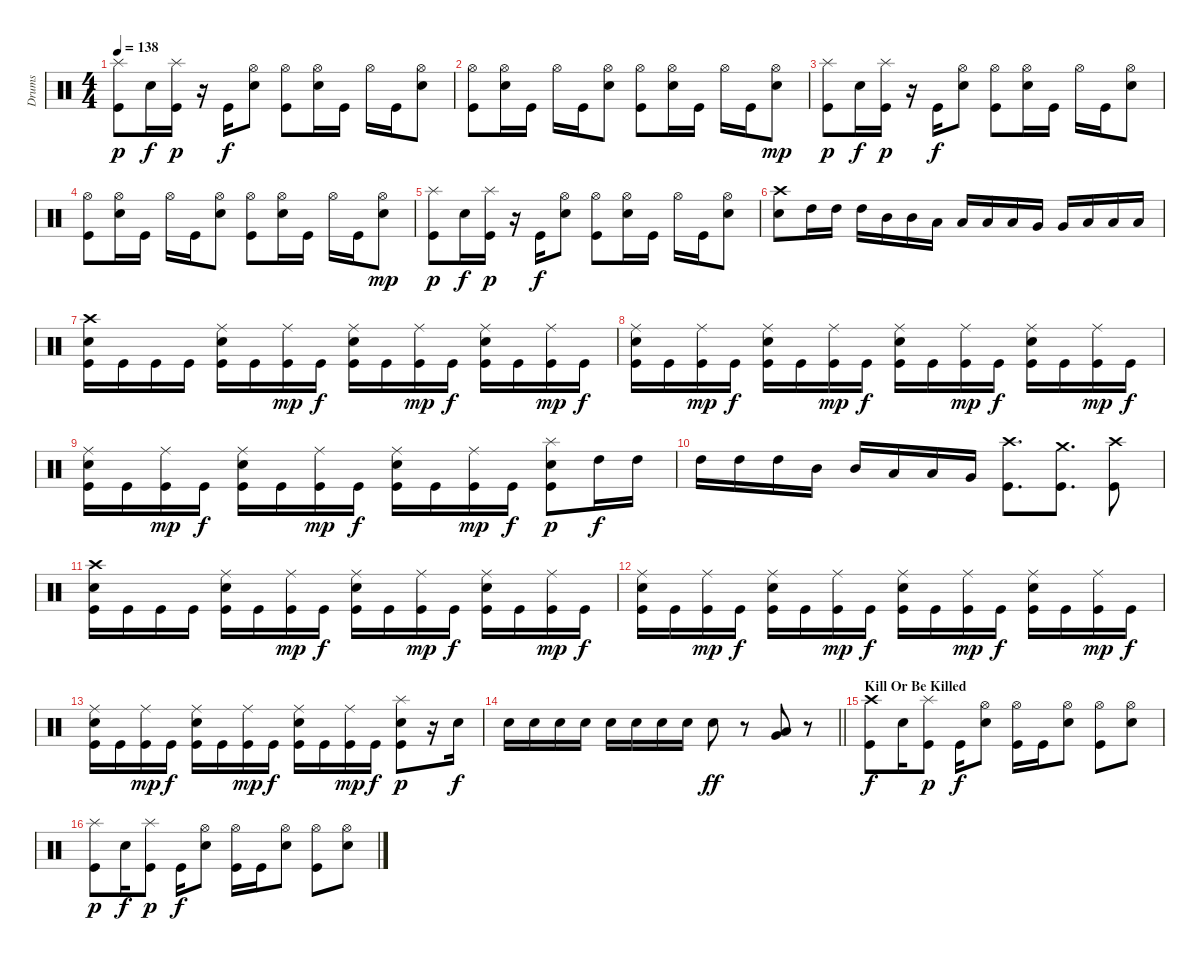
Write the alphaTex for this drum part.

\track ("Drums" "Drums") {instrument percussion}
\staff {score}
\articulation defaults
\ts (4 4)
\tempo 138
\clef neutral
\ks c
("Splash (hit)" "Kick (hit)").8{dy p} "Electric Snare (hit)".16{dy f} ("Splash (hit)" "Kick (hit)").16{dy p} r.16 "Kick (hit)".16{dy f} ("Hi-Hat (open)" "Electric Snare (hit)").8 ("Hi-Hat (open)" "Kick (hit)").8 ("Hi-Hat (open)" "Electric Snare (hit)").16 "Kick (hit)".16 "Hi-Hat (open)".16 "Kick (hit)".16 ("Hi-Hat (open)" "Electric Snare (hit)").8 |
("Hi-Hat (open)" "Kick (hit)").8 ("Hi-Hat (open)" "Electric Snare (hit)").16 "Kick (hit)".16 "Hi-Hat (open)".16 "Kick (hit)".16 ("Hi-Hat (open)" "Electric Snare (hit)").8 ("Hi-Hat (open)" "Kick (hit)").8 ("Hi-Hat (open)" "Electric Snare (hit)").16 "Kick (hit)".16 "Hi-Hat (open)".16 "Kick (hit)".16 ("Hi-Hat (open)" "Electric Snare (hit)").8{dy mp} |
("Splash (hit)" "Kick (hit)").8{dy p} "Electric Snare (hit)".16{dy f} ("Splash (hit)" "Kick (hit)").16{dy p} r.16 "Kick (hit)".16{dy f} ("Hi-Hat (open)" "Electric Snare (hit)").8 ("Hi-Hat (open)" "Kick (hit)").8 ("Hi-Hat (open)" "Electric Snare (hit)").16 "Kick (hit)".16 "Hi-Hat (open)".16 "Kick (hit)".16 ("Hi-Hat (open)" "Electric Snare (hit)").8 |
("Hi-Hat (open)" "Kick (hit)").8 ("Hi-Hat (open)" "Electric Snare (hit)").16 "Kick (hit)".16 "Hi-Hat (open)".16 "Kick (hit)".16 ("Hi-Hat (open)" "Electric Snare (hit)").8 ("Hi-Hat (open)" "Kick (hit)").8 ("Hi-Hat (open)" "Electric Snare (hit)").16 "Kick (hit)".16 "Hi-Hat (open)".16 "Kick (hit)".16 ("Hi-Hat (open)" "Electric Snare (hit)").8{dy mp} |
("Splash (hit)" "Kick (hit)").8{dy p} "Electric Snare (hit)".16{dy f} ("Splash (hit)" "Kick (hit)").16{dy p} r.16 "Kick (hit)".16{dy f} ("Hi-Hat (open)" "Electric Snare (hit)").8 ("Hi-Hat (open)" "Kick (hit)").8 ("Hi-Hat (open)" "Electric Snare (hit)").16 "Kick (hit)".16 "Hi-Hat (open)".16 "Kick (hit)".16 ("Hi-Hat (open)" "Electric Snare (hit)").8 |
("Crash high (hit)" "Electric Snare (hit)").8 "High Tom (hit)".16 "High Tom (hit)".16 "High Tom (hit)".16 "Mid Tom (hit)".16 "Mid Tom (hit)".16 "Low Tom (hit)".16 "Low Tom (hit)".16 "Low Tom (hit)".16 "Low Tom (hit)".16 "Very Low Tom (hit)".16 "Very Low Tom (hit)".16 "Low Floor Tom (hit)".16 "Low Floor Tom (hit)".16 "Low Floor Tom (hit)".16 |
("Crash high (hit)" "Electric Snare (hit)" "Kick (hit)").16 "Kick (hit)".16 "Kick (hit)".16 "Kick (hit)".16 ("Ride (middle)" "Electric Snare (hit)" "Kick (hit)").16 "Kick (hit)".16 ("Ride (middle)" "Kick (hit)").16{dy mp} "Kick (hit)".16{dy f} ("Ride (middle)" "Electric Snare (hit)" "Kick (hit)").16 "Kick (hit)".16 ("Ride (middle)" "Kick (hit)").16{dy mp} "Kick (hit)".16{dy f} ("Ride (middle)" "Electric Snare (hit)" "Kick (hit)").16 "Kick (hit)".16 ("Ride (middle)" "Kick (hit)").16{dy mp} "Kick (hit)".16{dy f} |
("Ride (middle)" "Electric Snare (hit)" "Kick (hit)").16 "Kick (hit)".16 ("Ride (middle)" "Kick (hit)").16{dy mp} "Kick (hit)".16{dy f} ("Ride (middle)" "Electric Snare (hit)" "Kick (hit)").16 "Kick (hit)".16 ("Ride (middle)" "Kick (hit)").16{dy mp} "Kick (hit)".16{dy f} ("Ride (middle)" "Electric Snare (hit)" "Kick (hit)").16 "Kick (hit)".16 ("Ride (middle)" "Kick (hit)").16{dy mp} "Kick (hit)".16{dy f} ("Ride (middle)" "Electric Snare (hit)" "Kick (hit)").16 "Kick (hit)".16 ("Ride (middle)" "Kick (hit)").16{dy mp} "Kick (hit)".16{dy f} |
("Ride (middle)" "Electric Snare (hit)" "Kick (hit)").16 "Kick (hit)".16 ("Ride (middle)" "Kick (hit)").16{dy mp} "Kick (hit)".16{dy f} ("Ride (middle)" "Electric Snare (hit)" "Kick (hit)").16 "Kick (hit)".16 ("Ride (middle)" "Kick (hit)").16{dy mp} "Kick (hit)".16{dy f} ("Ride (middle)" "Electric Snare (hit)" "Kick (hit)").16 "Kick (hit)".16 ("Ride (middle)" "Kick (hit)").16{dy mp} "Kick (hit)".16{dy f} ("Splash (hit)" "Electric Snare (hit)" "Kick (hit)").8{dy p} "High Tom (hit)".16{dy f} "High Tom (hit)".16 |
"High Tom (hit)".16 "High Tom (hit)".16 "High Tom (hit)".16 "Mid Tom (hit)".16 "Mid Tom (hit)".16 "Low Tom (hit)".16 "Low Tom (hit)".16 "Very Low Tom (hit)".16 ("Crash high (hit)" "Kick (hit)").8{d} ("Crash medium (hit)" "Kick (hit)").8{d} ("Crash high (hit)" "Kick (hit)").8 |
("Crash high (hit)" "Electric Snare (hit)" "Kick (hit)").16 "Kick (hit)".16 "Kick (hit)".16 "Kick (hit)".16 ("Ride (middle)" "Electric Snare (hit)" "Kick (hit)").16 "Kick (hit)".16 ("Ride (middle)" "Kick (hit)").16{dy mp} "Kick (hit)".16{dy f} ("Ride (middle)" "Electric Snare (hit)" "Kick (hit)").16 "Kick (hit)".16 ("Ride (middle)" "Kick (hit)").16{dy mp} "Kick (hit)".16{dy f} ("Ride (middle)" "Electric Snare (hit)" "Kick (hit)").16 "Kick (hit)".16 ("Ride (middle)" "Kick (hit)").16{dy mp} "Kick (hit)".16{dy f} |
("Ride (middle)" "Electric Snare (hit)" "Kick (hit)").16 "Kick (hit)".16 ("Ride (middle)" "Kick (hit)").16{dy mp} "Kick (hit)".16{dy f} ("Ride (middle)" "Electric Snare (hit)" "Kick (hit)").16 "Kick (hit)".16 ("Ride (middle)" "Kick (hit)").16{dy mp} "Kick (hit)".16{dy f} ("Ride (middle)" "Electric Snare (hit)" "Kick (hit)").16 "Kick (hit)".16 ("Ride (middle)" "Kick (hit)").16{dy mp} "Kick (hit)".16{dy f} ("Ride (middle)" "Electric Snare (hit)" "Kick (hit)").16 "Kick (hit)".16 ("Ride (middle)" "Kick (hit)").16{dy mp} "Kick (hit)".16{dy f} |
("Ride (middle)" "Electric Snare (hit)" "Kick (hit)").16 "Kick (hit)".16 ("Ride (middle)" "Kick (hit)").16{dy mp} "Kick (hit)".16{dy f} ("Ride (middle)" "Electric Snare (hit)" "Kick (hit)").16 "Kick (hit)".16 ("Ride (middle)" "Kick (hit)").16{dy mp} "Kick (hit)".16{dy f} ("Ride (middle)" "Electric Snare (hit)" "Kick (hit)").16 "Kick (hit)".16 ("Ride (middle)" "Kick (hit)").16{dy mp} "Kick (hit)".16{dy f} ("Splash (hit)" "Electric Snare (hit)" "Kick (hit)").8{dy p} r.16 "Electric Snare (hit)".16{dy f} |
\barLineRight lightlight "Electric Snare (hit)".16 "Electric Snare (hit)".16 "Electric Snare (hit)".16 "Electric Snare (hit)".16 "Electric Snare (hit)".16 "Electric Snare (hit)".16 "Electric Snare (hit)".16 "Electric Snare (hit)".16 "Electric Snare (hit)".8{dy ff}
r.8 ("Low Floor Tom (hit)" "Very Low Tom (hit)").8 r.8 |
\section ("" "Kill Or Be Killed")
("Crash high (hit)" "Kick (hit)").8{dy f} "Electric Snare (hit)".16 ("Splash (hit)" "Kick (hit)").8{dy p} "Kick (hit)".16{dy f} ("Hi-Hat (open)" "Electric Snare (hit)").8 ("Hi-Hat (open)" "Kick (hit)").16 "Kick (hit)".16 ("Hi-Hat (open)" "Electric Snare (hit)").8 ("Hi-Hat (open)" "Kick (hit)").8 ("Hi-Hat (open)" "Electric Snare (hit)").8 |
("Splash (hit)" "Kick (hit)").8{dy p} "Electric Snare (hit)".16{dy f} ("Splash (hit)" "Kick (hit)").8{dy p} "Kick (hit)".16{dy f} ("Hi-Hat (open)" "Electric Snare (hit)").8 ("Hi-Hat (open)" "Kick (hit)").16 "Kick (hit)".16 ("Hi-Hat (open)" "Electric Snare (hit)").8 ("Hi-Hat (open)" "Kick (hit)").8 ("Hi-Hat (open)" "Electric Snare (hit)").8
